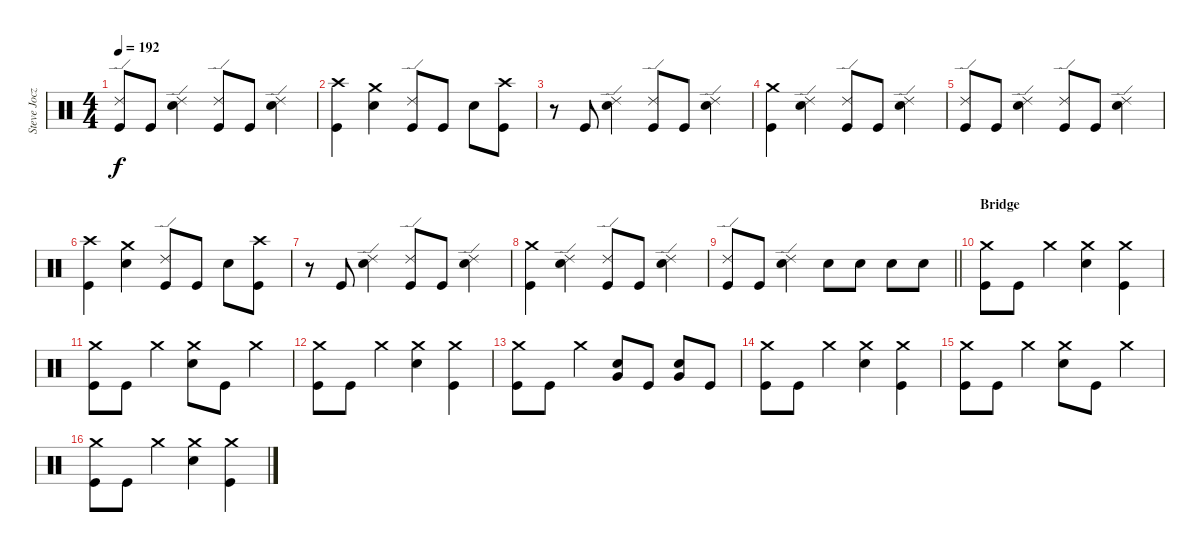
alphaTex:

\track ("Steve Jocz" "Steve Jocz") {instrument percussion}
\staff {score}
\articulation defaults
\ts (4 4)
\tempo 192
\clef neutral
\ks c
("Ride (edge) 2" "Kick (hit)").8{dy f} "Kick (hit)".8 ("Ride (edge) 2" "Electric Snare (hit)").4 ("Ride (edge) 2" "Kick (hit)").8 "Kick (hit)".8 ("Ride (edge) 2" "Electric Snare (hit)").4 |
("Crash high (hit)" "Kick (hit)").4 ("Crash medium (hit)" "Electric Snare (hit)").4 ("Ride (edge) 2" "Kick (hit)").8 "Kick (hit)".8 "Electric Snare (hit)".8 ("Crash high (hit)" "Kick (hit)").8 |
r.8 "Kick (hit)".8 ("Ride (edge) 2" "Electric Snare (hit)").4 ("Ride (edge) 2" "Kick (hit)").8 "Kick (hit)".8 ("Ride (edge) 2" "Electric Snare (hit)").4 |
("Crash medium (hit)" "Kick (hit)").4 ("Ride (edge) 2" "Electric Snare (hit)").4 ("Ride (edge) 2" "Kick (hit)").8 "Kick (hit)".8 ("Ride (edge) 2" "Electric Snare (hit)").4 |
("Ride (edge) 2" "Kick (hit)").8 "Kick (hit)".8 ("Ride (edge) 2" "Electric Snare (hit)").4 ("Ride (edge) 2" "Kick (hit)").8 "Kick (hit)".8 ("Ride (edge) 2" "Electric Snare (hit)").4 |
("Crash high (hit)" "Kick (hit)").4 ("Crash medium (hit)" "Electric Snare (hit)").4 ("Ride (edge) 2" "Kick (hit)").8 "Kick (hit)".8 "Electric Snare (hit)".8 ("Crash high (hit)" "Kick (hit)").8 |
r.8 "Kick (hit)".8 ("Ride (edge) 2" "Electric Snare (hit)").4 ("Ride (edge) 2" "Kick (hit)").8 "Kick (hit)".8 ("Ride (edge) 2" "Electric Snare (hit)").4 |
("Crash medium (hit)" "Kick (hit)").4 ("Ride (edge) 2" "Electric Snare (hit)").4 ("Ride (edge) 2" "Kick (hit)").8 "Kick (hit)".8 ("Ride (edge) 2" "Electric Snare (hit)").4 |
\barLineRight lightlight
("Ride (edge) 2" "Kick (hit)").8 "Kick (hit)".8 ("Ride (edge) 2" "Electric Snare (hit)").4 "Electric Snare (hit)".8 "Electric Snare (hit)".8 "Electric Snare (hit)".8 "Electric Snare (hit)".8 |
\section ("" "Bridge")
("Crash medium (hit)" "Kick (hit)").8 "Kick (hit)".8 "Crash medium (hit)".4 ("Crash medium (hit)" "Electric Snare (hit)").4 ("Crash medium (hit)" "Kick (hit)").4 |
("Crash medium (hit)" "Kick (hit)").8 "Kick (hit)".8 "Crash medium (hit)".4 ("Crash medium (hit)" "Electric Snare (hit)").8 "Kick (hit)".8 "Crash medium (hit)".4 |
("Crash medium (hit)" "Kick (hit)").8 "Kick (hit)".8 "Crash medium (hit)".4 ("Crash medium (hit)" "Electric Snare (hit)").4 ("Crash medium (hit)" "Kick (hit)").4 |
("Crash medium (hit)" "Kick (hit)").8 "Kick (hit)".8 "Crash medium (hit)".4 ("Very Low Tom (hit)" "Electric Snare (hit)").8 "Kick (hit)".8 ("Very Low Tom (hit)" "Electric Snare (hit)").8 "Kick (hit)".8 |
("Crash medium (hit)" "Kick (hit)").8 "Kick (hit)".8 "Crash medium (hit)".4 ("Crash medium (hit)" "Electric Snare (hit)").4 ("Crash medium (hit)" "Kick (hit)").4 |
("Crash medium (hit)" "Kick (hit)").8 "Kick (hit)".8 "Crash medium (hit)".4 ("Crash medium (hit)" "Electric Snare (hit)").8 "Kick (hit)".8 "Crash medium (hit)".4 |
("Crash medium (hit)" "Kick (hit)").8 "Kick (hit)".8 "Crash medium (hit)".4 ("Crash medium (hit)" "Electric Snare (hit)").4 ("Crash medium (hit)" "Kick (hit)").4
